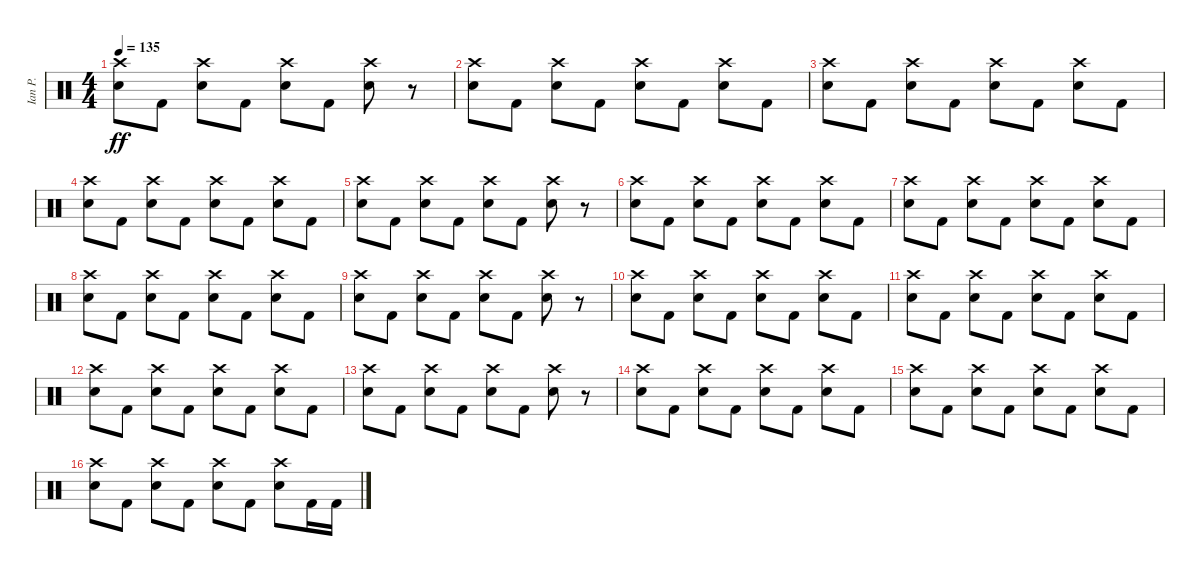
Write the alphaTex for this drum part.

\track ("Ian P." "Ian P.") {instrument percussion}
\staff {score}
\articulation defaults
\ts (4 4)
\tempo 135
\clef neutral
\ks c
("Crash high (hit)" "Snare (hit) 2").8{dy ff} "Kick (hit) 2".8 ("Crash high (hit)" "Snare (hit) 2").8 "Kick (hit) 2".8 ("Crash high (hit)" "Snare (hit) 2").8 "Kick (hit) 2".8 ("Crash high (hit)" "Snare (hit) 2").8 r.8 |
("Crash high (hit)" "Snare (hit) 2").8 "Kick (hit) 2".8 ("Crash high (hit)" "Snare (hit) 2").8 "Kick (hit) 2".8 ("Crash high (hit)" "Snare (hit) 2").8 "Kick (hit) 2".8 ("Crash high (hit)" "Snare (hit) 2").8 "Kick (hit) 2".8 |
("Crash high (hit)" "Snare (hit) 2").8 "Kick (hit) 2".8 ("Crash high (hit)" "Snare (hit) 2").8 "Kick (hit) 2".8 ("Crash high (hit)" "Snare (hit) 2").8 "Kick (hit) 2".8 ("Crash high (hit)" "Snare (hit) 2").8 "Kick (hit) 2".8 |
("Crash high (hit)" "Snare (hit) 2").8 "Kick (hit) 2".8 ("Crash high (hit)" "Snare (hit) 2").8 "Kick (hit) 2".8 ("Crash high (hit)" "Snare (hit) 2").8 "Kick (hit) 2".8 ("Crash high (hit)" "Snare (hit) 2").8 "Kick (hit) 2".8 |
("Crash high (hit)" "Snare (hit) 2").8 "Kick (hit) 2".8 ("Crash high (hit)" "Snare (hit) 2").8 "Kick (hit) 2".8 ("Crash high (hit)" "Snare (hit) 2").8 "Kick (hit) 2".8 ("Crash high (hit)" "Snare (hit) 2").8 r.8 |
("Crash high (hit)" "Snare (hit) 2").8 "Kick (hit) 2".8 ("Crash high (hit)" "Snare (hit) 2").8 "Kick (hit) 2".8 ("Crash high (hit)" "Snare (hit) 2").8 "Kick (hit) 2".8 ("Crash high (hit)" "Snare (hit) 2").8 "Kick (hit) 2".8 |
("Crash high (hit)" "Snare (hit) 2").8 "Kick (hit) 2".8 ("Crash high (hit)" "Snare (hit) 2").8 "Kick (hit) 2".8 ("Crash high (hit)" "Snare (hit) 2").8 "Kick (hit) 2".8 ("Crash high (hit)" "Snare (hit) 2").8 "Kick (hit) 2".8 |
("Crash high (hit)" "Snare (hit) 2").8 "Kick (hit) 2".8 ("Crash high (hit)" "Snare (hit) 2").8 "Kick (hit) 2".8 ("Crash high (hit)" "Snare (hit) 2").8 "Kick (hit) 2".8 ("Crash high (hit)" "Snare (hit) 2").8 "Kick (hit) 2".8 |
("Crash high (hit)" "Snare (hit) 2").8 "Kick (hit) 2".8 ("Crash high (hit)" "Snare (hit) 2").8 "Kick (hit) 2".8 ("Crash high (hit)" "Snare (hit) 2").8 "Kick (hit) 2".8 ("Crash high (hit)" "Snare (hit) 2").8 r.8 |
("Crash high (hit)" "Snare (hit) 2").8 "Kick (hit) 2".8 ("Crash high (hit)" "Snare (hit) 2").8 "Kick (hit) 2".8 ("Crash high (hit)" "Snare (hit) 2").8 "Kick (hit) 2".8 ("Crash high (hit)" "Snare (hit) 2").8 "Kick (hit) 2".8 |
("Crash high (hit)" "Snare (hit) 2").8 "Kick (hit) 2".8 ("Crash high (hit)" "Snare (hit) 2").8 "Kick (hit) 2".8 ("Crash high (hit)" "Snare (hit) 2").8 "Kick (hit) 2".8 ("Crash high (hit)" "Snare (hit) 2").8 "Kick (hit) 2".8 |
("Crash high (hit)" "Snare (hit) 2").8 "Kick (hit) 2".8 ("Crash high (hit)" "Snare (hit) 2").8 "Kick (hit) 2".8 ("Crash high (hit)" "Snare (hit) 2").8 "Kick (hit) 2".8 ("Crash high (hit)" "Snare (hit) 2").8 "Kick (hit) 2".8 |
("Crash high (hit)" "Snare (hit) 2").8 "Kick (hit) 2".8 ("Crash high (hit)" "Snare (hit) 2").8 "Kick (hit) 2".8 ("Crash high (hit)" "Snare (hit) 2").8 "Kick (hit) 2".8 ("Crash high (hit)" "Snare (hit) 2").8 r.8 |
("Crash high (hit)" "Snare (hit) 2").8 "Kick (hit) 2".8 ("Crash high (hit)" "Snare (hit) 2").8 "Kick (hit) 2".8 ("Crash high (hit)" "Snare (hit) 2").8 "Kick (hit) 2".8 ("Crash high (hit)" "Snare (hit) 2").8 "Kick (hit) 2".8 |
("Crash high (hit)" "Snare (hit) 2").8 "Kick (hit) 2".8 ("Crash high (hit)" "Snare (hit) 2").8 "Kick (hit) 2".8 ("Crash high (hit)" "Snare (hit) 2").8 "Kick (hit) 2".8 ("Crash high (hit)" "Snare (hit) 2").8 "Kick (hit) 2".8 |
("Crash high (hit)" "Snare (hit) 2").8 "Kick (hit) 2".8 ("Crash high (hit)" "Snare (hit) 2").8 "Kick (hit) 2".8 ("Crash high (hit)" "Snare (hit) 2").8 "Kick (hit) 2".8 ("Crash high (hit)" "Snare (hit) 2").8 "Kick (hit) 2".16 "Kick (hit) 2".16
